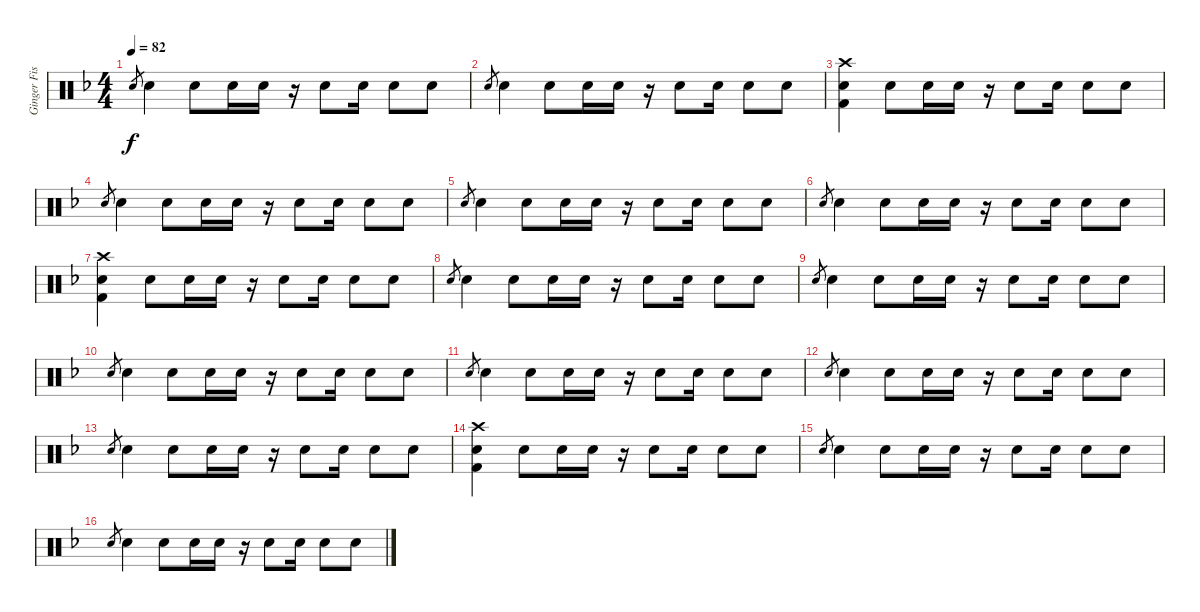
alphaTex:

\track ("Ginger Fish" "Ginger Fis") {instrument percussion}
\staff {score}
\articulation defaults
\ts (4 4)
\tempo 82
\clef neutral
\ks f "Electric Snare (hit)".8{gr dy f} "Electric Snare (hit)".4 "Electric Snare (hit)".8 "Snare (hit) 2".16 "Electric Snare (hit)".16
r.16 "Electric Snare (hit)".8 "Snare (hit) 2".16 "Snare (hit) 2".8 "Electric Snare (hit)".8 |
"Electric Snare (hit)".8{gr} "Electric Snare (hit)".4 "Electric Snare (hit)".8 "Snare (hit) 2".16 "Electric Snare (hit)".16 r.16 "Electric Snare (hit)".8 "Snare (hit) 2".16 "Snare (hit) 2".8 "Electric Snare (hit)".8 |
("Kick (hit) 2" "Crash high (hit)" "Electric Snare (hit)").4{volume 13} "Electric Snare (hit)".8 "Snare (hit) 2".16 "Electric Snare (hit)".16 r.16 "Electric Snare (hit)".8 "Snare (hit) 2".16 "Snare (hit) 2".8 "Electric Snare (hit)".8 |
"Electric Snare (hit)".8{gr} "Electric Snare (hit)".4 "Electric Snare (hit)".8 "Snare (hit) 2".16 "Electric Snare (hit)".16 r.16 "Electric Snare (hit)".8 "Snare (hit) 2".16 "Snare (hit) 2".8 "Electric Snare (hit)".8 |
"Electric Snare (hit)".8{gr} "Electric Snare (hit)".4 "Electric Snare (hit)".8 "Snare (hit) 2".16 "Electric Snare (hit)".16 r.16 "Electric Snare (hit)".8 "Snare (hit) 2".16 "Snare (hit) 2".8 "Electric Snare (hit)".8 |
"Electric Snare (hit)".8{gr} "Electric Snare (hit)".4 "Electric Snare (hit)".8 "Snare (hit) 2".16 "Electric Snare (hit)".16 r.16 "Electric Snare (hit)".8 "Snare (hit) 2".16 "Snare (hit) 2".8 "Electric Snare (hit)".8 |
("Kick (hit) 2" "Crash high (hit)" "Electric Snare (hit)").4{volume 13} "Electric Snare (hit)".8 "Snare (hit) 2".16 "Electric Snare (hit)".16 r.16 "Electric Snare (hit)".8 "Snare (hit) 2".16 "Snare (hit) 2".8 "Electric Snare (hit)".8 |
"Electric Snare (hit)".8{gr} "Electric Snare (hit)".4 "Electric Snare (hit)".8 "Snare (hit) 2".16 "Electric Snare (hit)".16 r.16 "Electric Snare (hit)".8 "Snare (hit) 2".16 "Snare (hit) 2".8 "Electric Snare (hit)".8 |
"Electric Snare (hit)".8{gr} "Electric Snare (hit)".4 "Electric Snare (hit)".8 "Snare (hit) 2".16 "Electric Snare (hit)".16 r.16 "Electric Snare (hit)".8 "Snare (hit) 2".16 "Snare (hit) 2".8 "Electric Snare (hit)".8 |
"Electric Snare (hit)".8{gr} "Electric Snare (hit)".4 "Electric Snare (hit)".8 "Snare (hit) 2".16 "Electric Snare (hit)".16 r.16 "Electric Snare (hit)".8 "Snare (hit) 2".16 "Snare (hit) 2".8 "Electric Snare (hit)".8 |
"Electric Snare (hit)".8{gr} "Electric Snare (hit)".4 "Electric Snare (hit)".8 "Snare (hit) 2".16 "Electric Snare (hit)".16 r.16 "Electric Snare (hit)".8 "Snare (hit) 2".16 "Snare (hit) 2".8 "Electric Snare (hit)".8 |
"Electric Snare (hit)".8{gr} "Electric Snare (hit)".4 "Electric Snare (hit)".8 "Snare (hit) 2".16 "Electric Snare (hit)".16 r.16 "Electric Snare (hit)".8 "Snare (hit) 2".16 "Snare (hit) 2".8 "Electric Snare (hit)".8 |
"Electric Snare (hit)".8{gr} "Electric Snare (hit)".4 "Electric Snare (hit)".8 "Snare (hit) 2".16 "Electric Snare (hit)".16 r.16 "Electric Snare (hit)".8 "Snare (hit) 2".16 "Snare (hit) 2".8 "Electric Snare (hit)".8 |
("Kick (hit) 2" "Crash high (hit)" "Electric Snare (hit)").4{volume 13} "Electric Snare (hit)".8 "Snare (hit) 2".16 "Electric Snare (hit)".16 r.16 "Electric Snare (hit)".8 "Snare (hit) 2".16 "Snare (hit) 2".8 "Electric Snare (hit)".8 |
"Electric Snare (hit)".8{gr} "Electric Snare (hit)".4 "Electric Snare (hit)".8 "Snare (hit) 2".16 "Electric Snare (hit)".16 r.16 "Electric Snare (hit)".8 "Snare (hit) 2".16 "Snare (hit) 2".8 "Electric Snare (hit)".8 |
"Electric Snare (hit)".8{gr} "Electric Snare (hit)".4 "Electric Snare (hit)".8 "Snare (hit) 2".16 "Electric Snare (hit)".16 r.16 "Electric Snare (hit)".8 "Snare (hit) 2".16 "Snare (hit) 2".8 "Electric Snare (hit)".8
